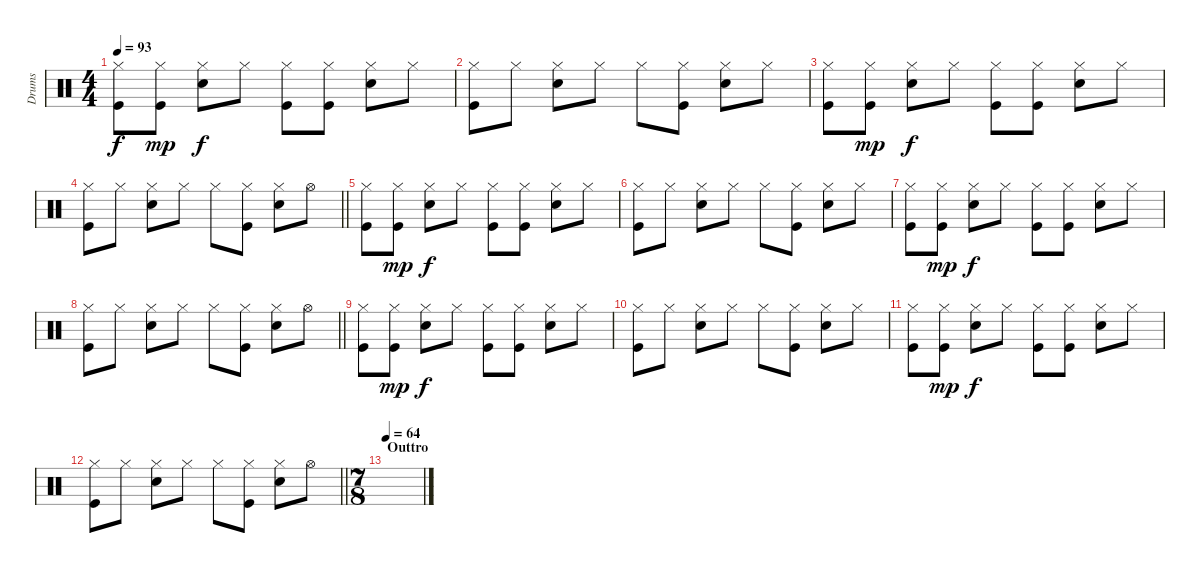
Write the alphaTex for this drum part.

\track ("Drums" "Drums") {instrument percussion}
\staff {score}
\articulation defaults
\ts (4 4)
\tempo 93
\clef neutral
\ks c
("Hi-Hat (closed)" "Kick (hit)").8{dy f} ("Hi-Hat (closed)" "Kick (hit)").8{dy mp} ("Hi-Hat (closed)" "Electric Snare (hit)").8{dy f} "Hi-Hat (closed)".8 ("Hi-Hat (closed)" "Kick (hit)").8 ("Hi-Hat (closed)" "Kick (hit)").8 ("Hi-Hat (closed)" "Electric Snare (hit)").8 "Hi-Hat (closed)".8 |
("Hi-Hat (closed)" "Kick (hit)").8 "Hi-Hat (closed)".8 ("Hi-Hat (closed)" "Electric Snare (hit)").8 "Hi-Hat (closed)".8 "Hi-Hat (closed)".8 ("Hi-Hat (closed)" "Kick (hit)").8 ("Hi-Hat (closed)" "Electric Snare (hit)").8 "Hi-Hat (closed)".8 |
("Hi-Hat (closed)" "Kick (hit)").8 ("Hi-Hat (closed)" "Kick (hit)").8{dy mp} ("Hi-Hat (closed)" "Electric Snare (hit)").8{dy f} "Hi-Hat (closed)".8 ("Hi-Hat (closed)" "Kick (hit)").8 ("Hi-Hat (closed)" "Kick (hit)").8 ("Hi-Hat (closed)" "Electric Snare (hit)").8 "Hi-Hat (closed)".8 |
\barLineRight lightlight
("Hi-Hat (closed)" "Kick (hit)").8 "Hi-Hat (closed)".8 ("Hi-Hat (closed)" "Electric Snare (hit)").8 "Hi-Hat (closed)".8 "Hi-Hat (closed)".8 ("Hi-Hat (closed)" "Kick (hit)").8 ("Hi-Hat (closed)" "Electric Snare (hit)").8 "Hi-Hat (open)".8 |
("Hi-Hat (closed)" "Kick (hit)").8 ("Hi-Hat (closed)" "Kick (hit)").8{dy mp} ("Hi-Hat (closed)" "Electric Snare (hit)").8{dy f} "Hi-Hat (closed)".8 ("Hi-Hat (closed)" "Kick (hit)").8 ("Hi-Hat (closed)" "Kick (hit)").8 ("Hi-Hat (closed)" "Electric Snare (hit)").8 "Hi-Hat (closed)".8 |
("Hi-Hat (closed)" "Kick (hit)").8 "Hi-Hat (closed)".8 ("Hi-Hat (closed)" "Electric Snare (hit)").8 "Hi-Hat (closed)".8 "Hi-Hat (closed)".8 ("Hi-Hat (closed)" "Kick (hit)").8 ("Hi-Hat (closed)" "Electric Snare (hit)").8 "Hi-Hat (closed)".8 |
("Hi-Hat (closed)" "Kick (hit)").8 ("Hi-Hat (closed)" "Kick (hit)").8{dy mp} ("Hi-Hat (closed)" "Electric Snare (hit)").8{dy f} "Hi-Hat (closed)".8 ("Hi-Hat (closed)" "Kick (hit)").8 ("Hi-Hat (closed)" "Kick (hit)").8 ("Hi-Hat (closed)" "Electric Snare (hit)").8 "Hi-Hat (closed)".8 |
\barLineRight lightlight
("Hi-Hat (closed)" "Kick (hit)").8 "Hi-Hat (closed)".8 ("Hi-Hat (closed)" "Electric Snare (hit)").8 "Hi-Hat (closed)".8 "Hi-Hat (closed)".8 ("Hi-Hat (closed)" "Kick (hit)").8 ("Hi-Hat (closed)" "Electric Snare (hit)").8 "Hi-Hat (open)".8 |
("Hi-Hat (closed)" "Kick (hit)").8 ("Hi-Hat (closed)" "Kick (hit)").8{dy mp} ("Hi-Hat (closed)" "Electric Snare (hit)").8{dy f} "Hi-Hat (closed)".8 ("Hi-Hat (closed)" "Kick (hit)").8 ("Hi-Hat (closed)" "Kick (hit)").8 ("Hi-Hat (closed)" "Electric Snare (hit)").8 "Hi-Hat (closed)".8 |
("Hi-Hat (closed)" "Kick (hit)").8 "Hi-Hat (closed)".8 ("Hi-Hat (closed)" "Electric Snare (hit)").8 "Hi-Hat (closed)".8 "Hi-Hat (closed)".8 ("Hi-Hat (closed)" "Kick (hit)").8 ("Hi-Hat (closed)" "Electric Snare (hit)").8 "Hi-Hat (closed)".8 |
("Hi-Hat (closed)" "Kick (hit)").8 ("Hi-Hat (closed)" "Kick (hit)").8{dy mp} ("Hi-Hat (closed)" "Electric Snare (hit)").8{dy f} "Hi-Hat (closed)".8 ("Hi-Hat (closed)" "Kick (hit)").8 ("Hi-Hat (closed)" "Kick (hit)").8 ("Hi-Hat (closed)" "Electric Snare (hit)").8 "Hi-Hat (closed)".8 |
\barLineRight lightlight
("Hi-Hat (closed)" "Kick (hit)").8 "Hi-Hat (closed)".8 ("Hi-Hat (closed)" "Electric Snare (hit)").8 "Hi-Hat (closed)".8 "Hi-Hat (closed)".8 ("Hi-Hat (closed)" "Kick (hit)").8 ("Hi-Hat (closed)" "Electric Snare (hit)").8 "Hi-Hat (open)".8 |
\ts (7 8)
\section ("" "Outtro")
\tempo 64
